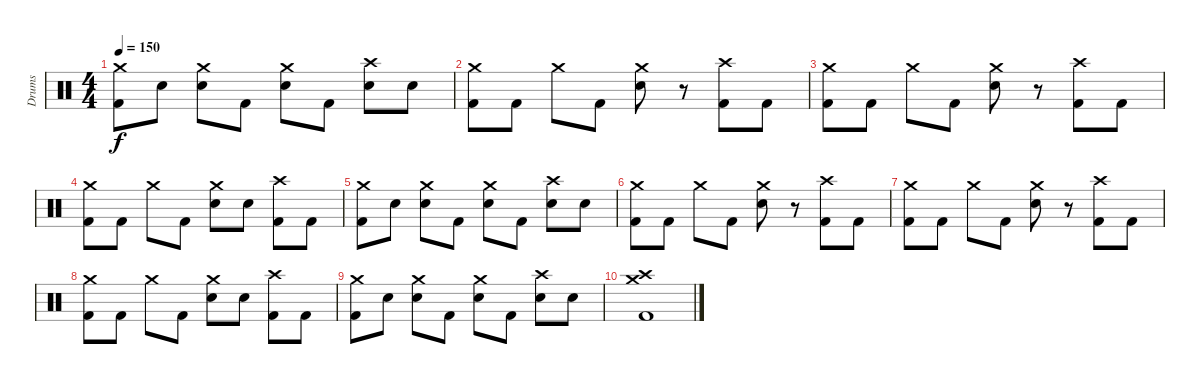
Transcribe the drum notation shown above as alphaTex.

\track ("Drums" "Drums") {instrument percussion}
\staff {score}
\articulation defaults
\ts (4 4)
\tempo 150
\clef neutral
\ks c
("Crash medium (hit)" "Kick (hit) 2").8{dy f} "Electric Snare (hit)".8 ("Crash medium (hit)" "Electric Snare (hit)").8 "Kick (hit) 2".8 ("Crash medium (hit)" "Electric Snare (hit)").8 "Kick (hit) 2".8 ("Crash high (hit)" "Electric Snare (hit)").8 "Electric Snare (hit)".8 |
("Crash medium (hit)" "Kick (hit) 2").8 "Kick (hit) 2".8 "Crash medium (hit)".8 "Kick (hit) 2".8 ("Crash medium (hit)" "Electric Snare (hit)").8 r.8 ("Crash high (hit)" "Kick (hit) 2").8 "Kick (hit) 2".8 |
("Crash medium (hit)" "Kick (hit) 2").8 "Kick (hit) 2".8 "Crash medium (hit)".8 "Kick (hit) 2".8 ("Crash medium (hit)" "Electric Snare (hit)").8 r.8 ("Crash high (hit)" "Kick (hit) 2").8 "Kick (hit) 2".8 |
("Crash medium (hit)" "Kick (hit) 2").8 "Kick (hit) 2".8 "Crash medium (hit)".8 "Kick (hit) 2".8 ("Crash medium (hit)" "Electric Snare (hit)").8 "Electric Snare (hit)".8 ("Crash high (hit)" "Kick (hit) 2").8 "Kick (hit) 2".8 |
("Crash medium (hit)" "Kick (hit) 2").8 "Electric Snare (hit)".8 ("Crash medium (hit)" "Electric Snare (hit)").8 "Kick (hit) 2".8 ("Crash medium (hit)" "Electric Snare (hit)").8 "Kick (hit) 2".8 ("Crash high (hit)" "Electric Snare (hit)").8 "Electric Snare (hit)".8 |
("Crash medium (hit)" "Kick (hit) 2").8 "Kick (hit) 2".8 "Crash medium (hit)".8 "Kick (hit) 2".8 ("Crash medium (hit)" "Electric Snare (hit)").8 r.8 ("Crash high (hit)" "Kick (hit) 2").8 "Kick (hit) 2".8 |
("Crash medium (hit)" "Kick (hit) 2").8 "Kick (hit) 2".8 "Crash medium (hit)".8 "Kick (hit) 2".8 ("Crash medium (hit)" "Electric Snare (hit)").8 r.8 ("Crash high (hit)" "Kick (hit) 2").8 "Kick (hit) 2".8 |
("Crash medium (hit)" "Kick (hit) 2").8 "Kick (hit) 2".8 "Crash medium (hit)".8 "Kick (hit) 2".8 ("Crash medium (hit)" "Electric Snare (hit)").8 "Electric Snare (hit)".8 ("Crash high (hit)" "Kick (hit) 2").8 "Kick (hit) 2".8 |
("Crash medium (hit)" "Kick (hit) 2").8 "Electric Snare (hit)".8 ("Crash medium (hit)" "Electric Snare (hit)").8 "Kick (hit) 2".8 ("Crash medium (hit)" "Electric Snare (hit)").8 "Kick (hit) 2".8 ("Crash high (hit)" "Electric Snare (hit)").8 "Electric Snare (hit)".8 |
("Crash medium (hit)" "Crash high (hit)" "Kick (hit) 2").1{volume 0}
